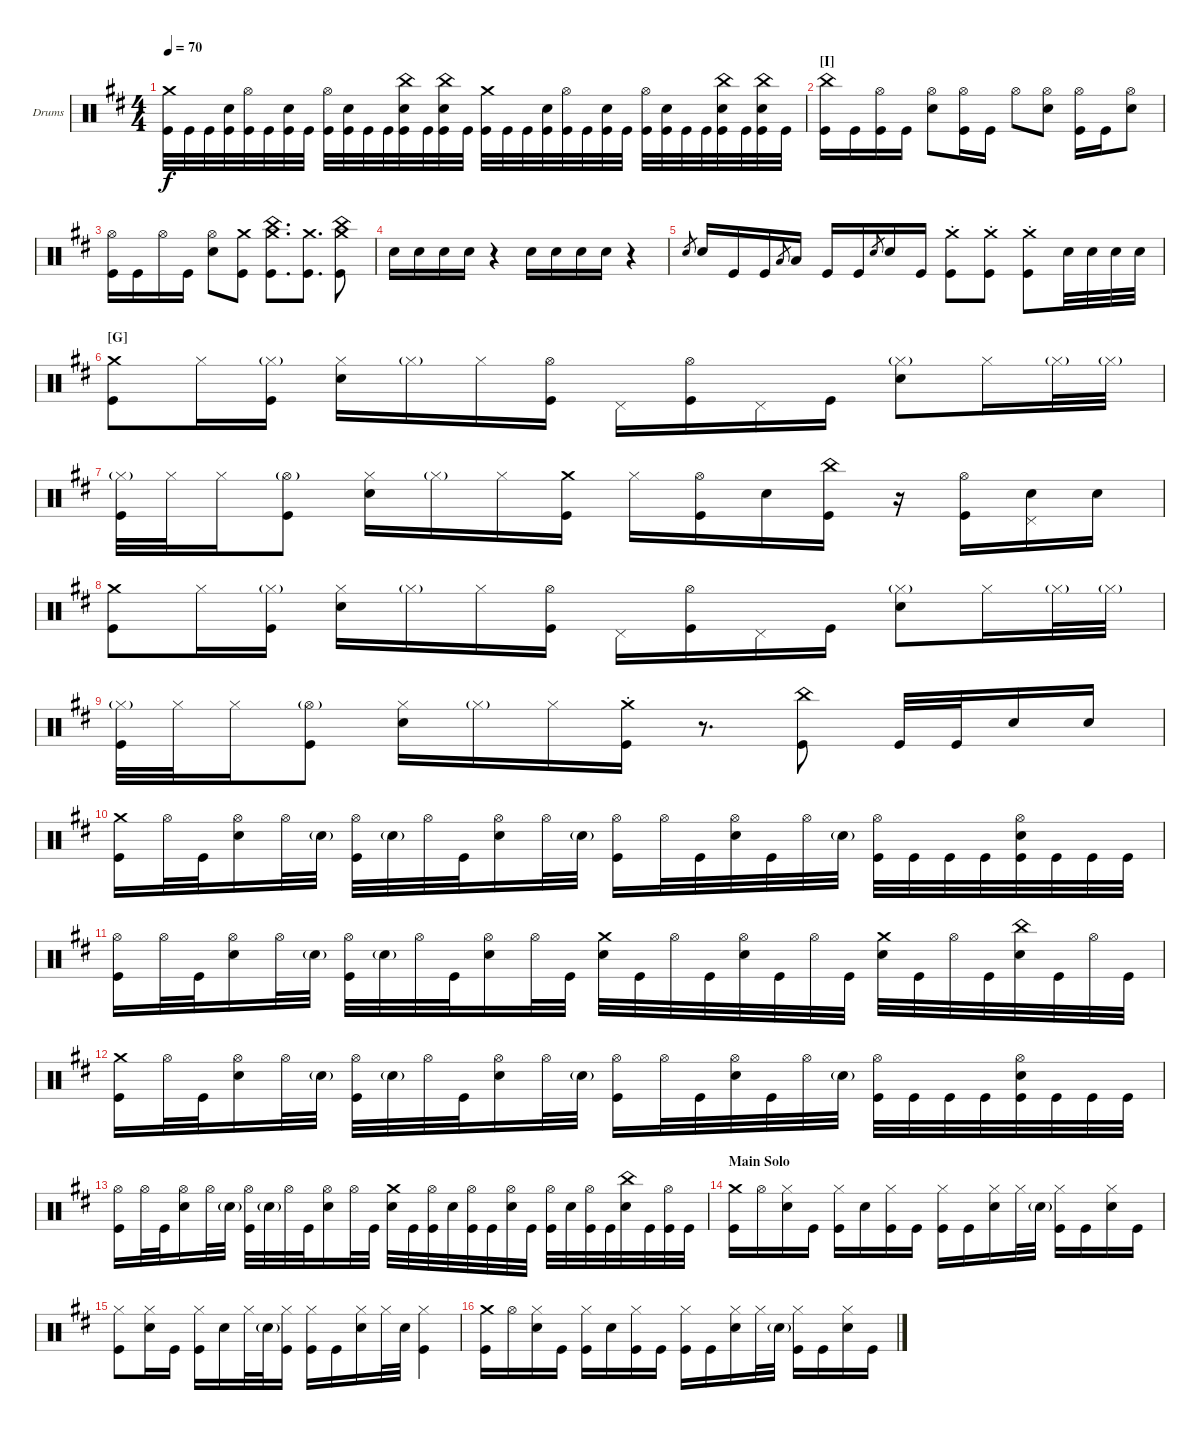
\bracketExtendMode groupsimilarinstruments
\firstSystemTrackNameOrientation horizontal
\otherSystemsTrackNameOrientation horizontal
\track ("Drums" "Drums") {instrument percussion}
\staff {score}
\articulation defaults
\ts (4 4)
\tempo 70
\clef neutral
\ks bminor
("Kick (hit)" "Crash medium (hit)").32{dy f} "Kick (hit)".32 "Kick (hit)".32 ("Kick (hit)" "Snare (hit) 2").32 ("Kick (hit)" "Hi-Hat (open)").32 "Kick (hit)".32 ("Kick (hit)" "Snare (hit) 2").32 "Kick (hit)".32 ("Kick (hit)" "Hi-Hat (open)").32 ("Kick (hit)" "Snare (hit) 2").32 "Kick (hit)".32 "Kick (hit)".32 ("Kick (hit)" "Snare (hit) 2" "China (hit)").32 "Kick (hit)".32 ("Kick (hit)" "Snare (hit) 2" "China (hit)").32 "Kick (hit)".32 ("Kick (hit)" "Crash medium (hit)").32 "Kick (hit)".32 "Kick (hit)".32 ("Kick (hit)" "Snare (hit) 2").32 ("Kick (hit)" "Hi-Hat (open)").32 "Kick (hit)".32 ("Kick (hit)" "Snare (hit) 2").32 "Kick (hit)".32 ("Kick (hit)" "Hi-Hat (open)").32 ("Kick (hit)" "Snare (hit) 2").32 "Kick (hit)".32 "Kick (hit)".32 ("Kick (hit)" "Snare (hit) 2" "China (hit)").32 "Kick (hit)".32 ("Kick (hit)" "Snare (hit) 2" "China (hit)").32 "Kick (hit)".32 |
\section ("I" "")
("Kick (hit)" "China (hit)").16 "Kick (hit)".16 ("Kick (hit)" "Hi-Hat (open)").16 "Kick (hit)".16 ("Snare (hit) 2" "Hi-Hat (open)").8 ("Kick (hit)" "Hi-Hat (open)").16 "Kick (hit)".16 "Hi-Hat (open)".8 ("Hi-Hat (open)" "Snare (hit) 2").8 ("Kick (hit)" "Hi-Hat (open)").16 "Kick (hit)".16 ("Hi-Hat (open)" "Snare (hit) 2").8 |
("Kick (hit)" "Hi-Hat (open)").16 "Kick (hit)".16 "Hi-Hat (open)".16 "Kick (hit)".16 ("Snare (hit) 2" "Hi-Hat (open)").8 ("Kick (hit)" "Crash medium (hit)").8 ("Kick (hit)" "Crash medium (hit)" "China (hit)").8{d} ("Kick (hit)" "Crash medium (hit)").8{d} ("Kick (hit)" "Crash medium (hit)" "China (hit)").8 |
"Snare (hit) 2".16 "Snare (hit) 2".16 "Snare (hit) 2".16 "Snare (hit) 2".16 r.4 "Snare (hit) 2".16 "Snare (hit) 2".16 "Snare (hit) 2".16 "Snare (hit) 2".16 r.4 |
"Snare (hit) 2".8{gr} "Snare (hit) 2".16 "Kick (hit)".16 "Kick (hit)".16 "Low Tom (hit)".8{gr} "Low Tom (hit)".16 "Kick (hit)".16 "Kick (hit)".16 "Snare (hit) 2".8{gr} "Snare (hit) 2".16 "Kick (hit)".16 ("Kick (hit)"{st} "Crash medium (hit)"{st}).8 ("Kick (hit)"{st} "Crash medium (hit)"{st}).8 ("Kick (hit)"{st} "Crash medium (hit)"{st}).8 "Snare (hit) 2".32 "Snare (hit) 2".32 "Snare (hit) 2".32 "Snare (hit) 2".32 |
\section ("G" "")
("Kick (hit)" "Crash medium (hit)").8 "Hi-Hat (closed)".16 ("Hi-Hat (closed)"{g} "Kick (hit)").16 ("Hi-Hat (closed)" "Snare (hit) 2").16 "Hi-Hat (closed)"{g}.16 "Hi-Hat (closed)".16 ("Kick (hit)" "Hi-Hat (open)").16 "Pedal Hi-Hat (hit)".16 ("Kick (hit)" "Hi-Hat (open)").16 "Pedal Hi-Hat (hit)".16 "Kick (hit)".16 ("Hi-Hat (closed)"{g} "Snare (hit) 2").8 "Hi-Hat (closed)".16 "Hi-Hat (closed)"{g}.32 "Hi-Hat (closed)"{g}.32 |
("Hi-Hat (closed)"{g} "Kick (hit)").32 "Hi-Hat (closed)".32 "Hi-Hat (closed)".16 ("Hi-Hat (open)"{g} "Kick (hit)").8 ("Hi-Hat (closed)" "Snare (hit) 2").16 "Hi-Hat (closed)"{g}.16 "Hi-Hat (closed)".16 ("Kick (hit)" "Crash medium (hit)").16 "Hi-Hat (closed)".16 ("Kick (hit)" "Hi-Hat (open)").16 "Snare (hit) 2".16 ("Kick (hit)" "China (hit)").16 r.16 ("Kick (hit)" "Hi-Hat (open)").16 ("Snare (hit) 2" "Pedal Hi-Hat (hit)").16 "Snare (hit) 2".16 |
("Kick (hit)" "Crash medium (hit)").8 "Hi-Hat (closed)".16 ("Hi-Hat (closed)"{g} "Kick (hit)").16 ("Hi-Hat (closed)" "Snare (hit) 2").16 "Hi-Hat (closed)"{g}.16 "Hi-Hat (closed)".16 ("Kick (hit)" "Hi-Hat (open)").16 "Pedal Hi-Hat (hit)".16 ("Kick (hit)" "Hi-Hat (open)").16 "Pedal Hi-Hat (hit)".16 "Kick (hit)".16 ("Hi-Hat (closed)"{g} "Snare (hit) 2").8 "Hi-Hat (closed)".16 "Hi-Hat (closed)"{g}.32 "Hi-Hat (closed)"{g}.32 |
("Hi-Hat (closed)"{g} "Kick (hit)").32 "Hi-Hat (closed)".32 "Hi-Hat (closed)".16 ("Hi-Hat (open)"{g} "Kick (hit)").8 ("Hi-Hat (closed)" "Snare (hit) 2").16 "Hi-Hat (closed)"{g}.16 "Hi-Hat (closed)".16 ("Kick (hit)"{st} "Crash medium (hit)"{st}).16 r.8{d} ("Kick (hit)" "China (hit)").8 "Kick (hit)".32 "Kick (hit)".32 "Snare (hit) 2".16 "Snare (hit) 2".16 |
("Kick (hit)" "Crash medium (hit)").16 "Hi-Hat (open)".32 "Kick (hit)".32 ("Hi-Hat (open)" "Snare (hit) 2").16 "Hi-Hat (open)".32 "Snare (hit) 2"{g}.32 ("Hi-Hat (open)" "Kick (hit)").32 "Snare (hit) 2"{g}.32 "Hi-Hat (open)".32 "Kick (hit)".32 ("Hi-Hat (open)" "Snare (hit) 2").16 "Hi-Hat (open)".32 "Snare (hit) 2"{g}.32 ("Kick (hit)" "Hi-Hat (open)").16 "Hi-Hat (open)".32 "Kick (hit)".32 ("Hi-Hat (open)" "Snare (hit) 2").32 "Kick (hit)".32 "Hi-Hat (open)".32 "Snare (hit) 2"{g}.32 ("Hi-Hat (open)" "Kick (hit)").32 "Kick (hit)".32 "Kick (hit)".32 "Kick (hit)".32 ("Hi-Hat (open)" "Kick (hit)" "Snare (hit) 2").32 "Kick (hit)".32 "Kick (hit)".32 "Kick (hit)".32 |
("Kick (hit)" "Hi-Hat (open)").16 "Hi-Hat (open)".32 "Kick (hit)".32 ("Hi-Hat (open)" "Snare (hit) 2").16 "Hi-Hat (open)".32 "Snare (hit) 2"{g}.32 ("Hi-Hat (open)" "Kick (hit)").32 "Snare (hit) 2"{g}.32 "Hi-Hat (open)".32 "Kick (hit)".32 ("Hi-Hat (open)" "Snare (hit) 2").16 "Hi-Hat (open)".32 "Kick (hit)".32 ("Snare (hit) 2" "Crash medium (hit)").32 "Kick (hit)".32 "Hi-Hat (open)".32 "Kick (hit)".32 ("Hi-Hat (open)" "Snare (hit) 2").32 "Kick (hit)".32 "Hi-Hat (open)".32 "Kick (hit)".32 ("Snare (hit) 2" "Crash medium (hit)").32 "Kick (hit)".32 "Hi-Hat (open)".32 "Kick (hit)".32 ("Snare (hit) 2" "China (hit)").32 "Kick (hit)".32 "Hi-Hat (open)".32 "Kick (hit)".32 |
("Kick (hit)" "Crash medium (hit)").16 "Hi-Hat (open)".32 "Kick (hit)".32 ("Hi-Hat (open)" "Snare (hit) 2").16 "Hi-Hat (open)".32 "Snare (hit) 2"{g}.32 ("Hi-Hat (open)" "Kick (hit)").32 "Snare (hit) 2"{g}.32 "Hi-Hat (open)".32 "Kick (hit)".32 ("Hi-Hat (open)" "Snare (hit) 2").16 "Hi-Hat (open)".32 "Snare (hit) 2"{g}.32 ("Kick (hit)" "Hi-Hat (open)").16 "Hi-Hat (open)".32 "Kick (hit)".32 ("Hi-Hat (open)" "Snare (hit) 2").32 "Kick (hit)".32 "Hi-Hat (open)".32 "Snare (hit) 2"{g}.32 ("Hi-Hat (open)" "Kick (hit)").32 "Kick (hit)".32 "Kick (hit)".32 "Kick (hit)".32 ("Hi-Hat (open)" "Kick (hit)" "Snare (hit) 2").32 "Kick (hit)".32 "Kick (hit)".32 "Kick (hit)".32 |
("Kick (hit)" "Hi-Hat (open)").16 "Hi-Hat (open)".32 "Kick (hit)".32 ("Hi-Hat (open)" "Snare (hit) 2").16 "Hi-Hat (open)".32 "Snare (hit) 2"{g}.32 ("Hi-Hat (open)" "Kick (hit)").32 "Snare (hit) 2"{g}.32 "Hi-Hat (open)".32 "Kick (hit)".32 ("Hi-Hat (open)" "Snare (hit) 2").16 "Hi-Hat (open)".32 "Kick (hit)".32 ("Snare (hit) 2" "Crash medium (hit)").32 "Kick (hit)".32 ("Hi-Hat (open)" "Kick (hit)").32 "Snare (hit) 2".32 ("Hi-Hat (open)" "Kick (hit)").32 "Kick (hit)".32 ("Hi-Hat (open)" "Snare (hit) 2").32 "Kick (hit)".32 ("Hi-Hat (open)" "Kick (hit)").32 "Snare (hit) 2".32 ("Hi-Hat (open)" "Kick (hit)").32 "Kick (hit)".32 ("Snare (hit) 2" "China (hit)").32 "Kick (hit)".32 ("Hi-Hat (open)" "Kick (hit)").32 "Kick (hit)".32 |
\section ("" "Main Solo")
("Kick (hit)" "Crash medium (hit)").16 "Hi-Hat (open)".16 ("Snare (hit) 2" "Hi-Hat (closed)").16 "Kick (hit)".16 ("Kick (hit)" "Hi-Hat (closed)").16 "Snare (hit) 2".16 ("Kick (hit)" "Hi-Hat (closed)").16 "Kick (hit)".16 ("Kick (hit)" "Hi-Hat (closed)").16 "Kick (hit)".16 ("Snare (hit) 2" "Hi-Hat (closed)").16 "Hi-Hat (closed)".32 "Snare (hit) 2"{g}.32 ("Kick (hit)" "Hi-Hat (closed)").16 "Kick (hit)".16 ("Snare (hit) 2" "Hi-Hat (closed)").16 "Kick (hit)".16 |
("Kick (hit)" "Hi-Hat (closed)").8 ("Snare (hit) 2" "Hi-Hat (closed)").16 "Kick (hit)".16 ("Kick (hit)" "Hi-Hat (closed)").16 "Snare (hit) 2".16 "Hi-Hat (closed)".32 "Snare (hit) 2"{g}.32 ("Kick (hit)" "Hi-Hat (closed)").16 ("Kick (hit)" "Hi-Hat (closed)").16 "Kick (hit)".16 ("Snare (hit) 2" "Hi-Hat (closed)").16 "Hi-Hat (closed)".32 "Snare (hit) 2".32 ("Kick (hit)" "Hi-Hat (closed)").4 |
("Kick (hit)" "Crash medium (hit)").16 "Hi-Hat (open)".16 ("Snare (hit) 2" "Hi-Hat (closed)").16 "Kick (hit)".16 ("Kick (hit)" "Hi-Hat (closed)").16 "Snare (hit) 2".16 ("Kick (hit)" "Hi-Hat (closed)").16 "Kick (hit)".16 ("Kick (hit)" "Hi-Hat (closed)").16 "Kick (hit)".16 ("Snare (hit) 2" "Hi-Hat (closed)").16 "Hi-Hat (closed)".32 "Snare (hit) 2"{g}.32 ("Kick (hit)" "Hi-Hat (closed)").16 "Kick (hit)".16 ("Snare (hit) 2" "Hi-Hat (closed)").16 "Kick (hit)".16
